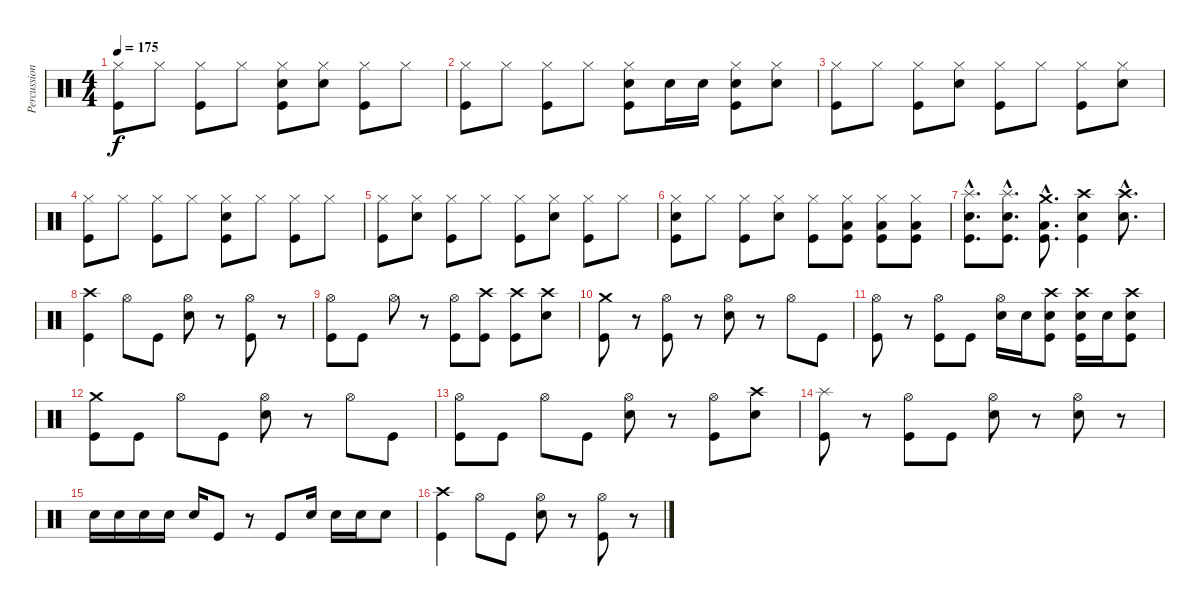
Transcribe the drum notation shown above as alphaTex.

\track ("Percussions" "Percussion") {instrument percussion}
\staff {score}
\articulation defaults
\ts (4 4)
\tempo 175
\clef neutral
\ks c
("Hi-Hat (closed)" "Kick (hit)").8{dy f} "Hi-Hat (closed)".8 ("Hi-Hat (closed)" "Kick (hit)").8 "Hi-Hat (closed)".8 ("Hi-Hat (closed)" "Snare (hit) 2" "Kick (hit)").8 ("Hi-Hat (closed)" "Snare (hit) 2").8 ("Hi-Hat (closed)" "Kick (hit)").8 "Hi-Hat (closed)".8 |
("Hi-Hat (closed)" "Kick (hit)").8 "Hi-Hat (closed)".8 ("Hi-Hat (closed)" "Kick (hit)").8 "Hi-Hat (closed)".8 ("Hi-Hat (closed)" "Snare (hit) 2" "Kick (hit)").8 "Snare (hit) 2".16 "Snare (hit) 2".16 ("Hi-Hat (closed)" "Snare (hit) 2" "Kick (hit)").8 ("Hi-Hat (closed)" "Snare (hit) 2").8 |
("Hi-Hat (closed)" "Kick (hit)").8 "Hi-Hat (closed)".8 ("Hi-Hat (closed)" "Kick (hit)").8 ("Hi-Hat (closed)" "Snare (hit) 2").8 ("Hi-Hat (closed)" "Kick (hit)").8 "Hi-Hat (closed)".8 ("Hi-Hat (closed)" "Kick (hit)").8 ("Hi-Hat (closed)" "Snare (hit) 2").8 |
("Hi-Hat (closed)" "Kick (hit)").8 "Hi-Hat (closed)".8 ("Hi-Hat (closed)" "Kick (hit)").8 "Hi-Hat (closed)".8 ("Hi-Hat (closed)" "Snare (hit) 2" "Kick (hit)").8 "Hi-Hat (closed)".8 ("Hi-Hat (closed)" "Kick (hit)").8 "Hi-Hat (closed)".8 |
("Hi-Hat (closed)" "Kick (hit)").8 ("Hi-Hat (closed)" "Snare (hit) 2").8 ("Hi-Hat (closed)" "Kick (hit)").8 "Hi-Hat (closed)".8 ("Hi-Hat (closed)" "Kick (hit)").8 ("Hi-Hat (closed)" "Snare (hit) 2").8 ("Hi-Hat (closed)" "Kick (hit)").8 "Hi-Hat (closed)".8 |
("Hi-Hat (closed)" "Snare (hit) 2" "Kick (hit)").8 "Hi-Hat (closed)".8 ("Hi-Hat (closed)" "Kick (hit)").8 ("Hi-Hat (closed)" "Snare (hit) 2").8 ("Hi-Hat (closed)" "Kick (hit)").8 ("Hi-Hat (closed)" "Low Floor Tom (hit)" "Kick (hit)").8 ("Hi-Hat (closed)" "Low Floor Tom (hit)" "Kick (hit)").8 ("Hi-Hat (closed)" "Low Floor Tom (hit)" "Kick (hit)").8 |
("Splash (hit)"{hac} "Snare (hit) 2"{hac} "Kick (hit)"{hac}).8{d} ("Splash (hit)"{hac} "Snare (hit) 2"{hac} "Kick (hit)"{hac}).8{d} ("Crash medium (hit)"{hac} "Low Floor Tom (hit)"{hac} "Kick (hit)"{hac}).8{d} ("Crash high (hit)" "Snare (hit) 2" "Kick (hit)").4 ("Crash high (hit)"{hac} "Snare (hit) 2"{hac}).8{d} |
("Crash high (hit)" "Kick (hit)").4 "Hi-Hat (open)".8 "Kick (hit)".8 ("Hi-Hat (open)" "Snare (hit) 2").8 r.8 ("Hi-Hat (open)" "Kick (hit)").8 r.8 |
("Hi-Hat (open)" "Kick (hit)").8 "Kick (hit)".8 "Hi-Hat (open)".8 r.8 ("Hi-Hat (open)" "Kick (hit)").8 ("Crash high (hit)" "Kick (hit)").8 ("Crash high (hit)" "Kick (hit)").8 ("Crash high (hit)" "Snare (hit) 2").8 |
("Crash medium (hit)" "Kick (hit)").8 r.8 ("Hi-Hat (open)" "Kick (hit)").8 r.8 ("Hi-Hat (open)" "Snare (hit) 2").8 r.8 "Hi-Hat (open)".8 "Kick (hit)".8 |
("Hi-Hat (open)" "Kick (hit)").8 r.8 ("Hi-Hat (open)" "Kick (hit)").8 "Kick (hit)".8 ("Hi-Hat (open)" "Snare (hit) 2").16 "Snare (hit) 2".16 ("Crash high (hit)" "Snare (hit) 2" "Kick (hit)").8 ("Crash high (hit)" "Snare (hit) 2" "Kick (hit)").16 "Snare (hit) 2".16 ("Crash high (hit)" "Snare (hit) 2" "Kick (hit)").8 |
("Crash medium (hit)" "Kick (hit)").8 "Kick (hit)".8 "Hi-Hat (open)".8 "Kick (hit)".8 ("Hi-Hat (open)" "Snare (hit) 2").8 r.8 "Hi-Hat (open)".8 "Kick (hit)".8 |
("Hi-Hat (open)" "Kick (hit)").8 "Kick (hit)".8 "Hi-Hat (open)".8 "Kick (hit)".8 ("Hi-Hat (open)" "Snare (hit) 2").8 r.8 ("Hi-Hat (open)" "Kick (hit)").8 ("Crash high (hit)" "Snare (hit) 2").8 |
("Splash (hit)" "Kick (hit)").8 r.8 ("Hi-Hat (open)" "Kick (hit)").8 "Kick (hit)".8 ("Hi-Hat (open)" "Snare (hit) 2").8 r.8 ("Hi-Hat (open)" "Snare (hit) 2").8 r.8 |
"Snare (hit) 2".16 "Snare (hit) 2".16 "Snare (hit) 2".16 "Snare (hit) 2".16 "Snare (hit) 2".16 "Kick (hit)".8 r.8 "Kick (hit)".8 "Snare (hit) 2".16 "Snare (hit) 2".16 "Snare (hit) 2".16 "Snare (hit) 2".8 |
("Crash high (hit)" "Kick (hit)").4 "Hi-Hat (open)".8 "Kick (hit)".8 ("Hi-Hat (open)" "Snare (hit) 2").8 r.8 ("Hi-Hat (open)" "Kick (hit)").8 r.8
